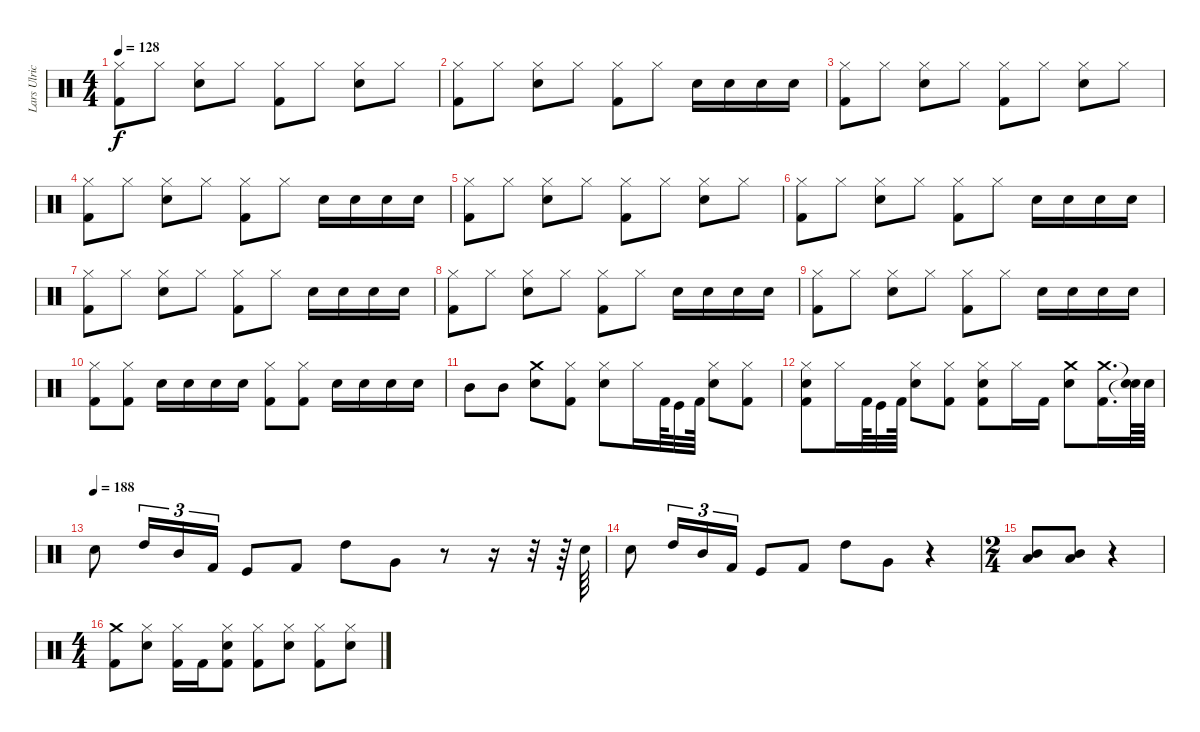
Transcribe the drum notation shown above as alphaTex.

\track ("Lars Ulrich (Drums)" "Lars Ulric") {instrument percussion}
\staff {score}
\articulation defaults
\ts (4 4)
\tempo 128
\clef neutral
\ks c
("Hi-Hat (closed)" "Kick (hit) 2").8{dy f} "Hi-Hat (closed)".8 ("Snare (hit) 2" "Hi-Hat (closed)").8 "Hi-Hat (closed)".8 ("Hi-Hat (closed)" "Kick (hit) 2").8 "Hi-Hat (closed)".8 ("Snare (hit) 2" "Hi-Hat (closed)").8 "Hi-Hat (closed)".8 |
("Hi-Hat (closed)" "Kick (hit) 2").8 "Hi-Hat (closed)".8 ("Snare (hit) 2" "Hi-Hat (closed)").8 "Hi-Hat (closed)".8 ("Hi-Hat (closed)" "Kick (hit) 2").8 "Hi-Hat (closed)".8 "Snare (hit) 2".16 "Snare (hit) 2".16 "Snare (hit) 2".16 "Snare (hit) 2".16 |
("Hi-Hat (closed)" "Kick (hit) 2").8 "Hi-Hat (closed)".8 ("Snare (hit) 2" "Hi-Hat (closed)").8 "Hi-Hat (closed)".8 ("Hi-Hat (closed)" "Kick (hit) 2").8 "Hi-Hat (closed)".8 ("Snare (hit) 2" "Hi-Hat (closed)").8 "Hi-Hat (closed)".8 |
("Hi-Hat (closed)" "Kick (hit) 2").8 "Hi-Hat (closed)".8 ("Snare (hit) 2" "Hi-Hat (closed)").8 "Hi-Hat (closed)".8 ("Hi-Hat (closed)" "Kick (hit) 2").8 "Hi-Hat (closed)".8 "Snare (hit) 2".16 "Snare (hit) 2".16 "Snare (hit) 2".16 "Snare (hit) 2".16 |
("Hi-Hat (closed)" "Kick (hit) 2").8 "Hi-Hat (closed)".8 ("Snare (hit) 2" "Hi-Hat (closed)").8 "Hi-Hat (closed)".8 ("Hi-Hat (closed)" "Kick (hit) 2").8 "Hi-Hat (closed)".8 ("Snare (hit) 2" "Hi-Hat (closed)").8 "Hi-Hat (closed)".8 |
("Hi-Hat (closed)" "Kick (hit) 2").8 "Hi-Hat (closed)".8 ("Snare (hit) 2" "Hi-Hat (closed)").8 "Hi-Hat (closed)".8 ("Hi-Hat (closed)" "Kick (hit) 2").8 "Hi-Hat (closed)".8 "Snare (hit) 2".16 "Snare (hit) 2".16 "Snare (hit) 2".16 "Snare (hit) 2".16 |
("Hi-Hat (closed)" "Kick (hit) 2").8 "Hi-Hat (closed)".8 ("Snare (hit) 2" "Hi-Hat (closed)").8 "Hi-Hat (closed)".8 ("Hi-Hat (closed)" "Kick (hit) 2").8 "Hi-Hat (closed)".8 "Snare (hit) 2".16 "Snare (hit) 2".16 "Snare (hit) 2".16 "Snare (hit) 2".16 |
("Hi-Hat (closed)" "Kick (hit) 2").8 "Hi-Hat (closed)".8 ("Snare (hit) 2" "Hi-Hat (closed)").8 "Hi-Hat (closed)".8 ("Hi-Hat (closed)" "Kick (hit) 2").8 "Hi-Hat (closed)".8 "Snare (hit) 2".16 "Snare (hit) 2".16 "Snare (hit) 2".16 "Snare (hit) 2".16 |
("Hi-Hat (closed)" "Kick (hit) 2").8 "Hi-Hat (closed)".8 ("Snare (hit) 2" "Hi-Hat (closed)").8 "Hi-Hat (closed)".8 ("Hi-Hat (closed)" "Kick (hit) 2").8 "Hi-Hat (closed)".8 "Snare (hit) 2".16 "Snare (hit) 2".16 "Snare (hit) 2".16 "Snare (hit) 2".16 |
("Kick (hit) 2" "Hi-Hat (closed)").8 ("Kick (hit) 2" "Hi-Hat (closed)").8 "Snare (hit) 2".16 "Snare (hit) 2".16 "Snare (hit) 2".16 "Snare (hit) 2".16 ("Kick (hit) 2" "Hi-Hat (closed)").8 ("Kick (hit) 2" "Hi-Hat (closed)").8 "Snare (hit) 2".16 "Snare (hit) 2".16 "Snare (hit) 2".16 "Snare (hit) 2".16 |
"Mid Tom (hit)".8 "Mid Tom (hit)".8 ("Crash medium (hit)" "Snare (hit) 2").8 ("Kick (hit) 2" "Hi-Hat (closed)").8 ("Snare (hit) 2" "Hi-Hat (closed)").8 "Hi-Hat (closed)".16 "Kick (hit) 2".64 "Kick (hit)".32 "Kick (hit) 2".64 ("Snare (hit) 2" "Hi-Hat (closed)").8 ("Kick (hit) 2" "Hi-Hat (closed)").8 |
("Hi-Hat (closed)" "Snare (hit) 2" "Kick (hit) 2").8 "Hi-Hat (closed)".16 "Kick (hit) 2".64 "Kick (hit)".32 "Kick (hit) 2".64 ("Snare (hit) 2" "Hi-Hat (closed)").8 ("Hi-Hat (closed)" "Kick (hit) 2").8 ("Snare (hit) 2" "Hi-Hat (closed)" "Kick (hit) 2").8 "Hi-Hat (closed)".16 "Kick (hit) 2".16 ("Crash medium (hit)" "Snare (hit) 2").8 ("Crash medium (hit)" "Kick (hit) 2").16{d} ("Snare (hit)"{t} "Snare (hit)"{t}).64 "Snare (hit) 2".64 |
\tempo (188)
"Snare (hit) 2".8 "High Tom (hit)".16{tu (3 2)} "Mid Tom (hit)".16{tu (3 2)} "Kick (hit) 2".16{tu (3 2)} "Kick (hit)".8 "Kick (hit) 2".8 "High Tom (hit)".8 "Very Low Tom (hit)".8 r.8 r.16 r.32 r.64 "Snare (hit) 2".64 |
"Snare (hit) 2".8 "High Tom (hit)".16{tu (3 2)} "Mid Tom (hit)".16{tu (3 2)} "Kick (hit) 2".16{tu (3 2)} "Kick (hit)".8 "Kick (hit) 2".8 "High Tom (hit)".8 "Very Low Tom (hit)".8 r.4 |
\ts (2 4)
("Mid Tom (hit)" "Low Tom (hit)").8 ("Mid Tom (hit)" "Low Tom (hit)").8 r.4 |
\ts (4 4)
("Kick (hit) 2" "Crash medium (hit)").8 ("Hi-Hat (closed)" "Snare (hit) 2").8 ("Kick (hit) 2" "Hi-Hat (closed)").16 "Kick (hit) 2".16 ("Kick (hit) 2" "Snare (hit) 2" "Hi-Hat (closed)").8 ("Kick (hit) 2" "Hi-Hat (closed)").8 ("Snare (hit) 2" "Hi-Hat (closed)").8 ("Kick (hit) 2" "Hi-Hat (closed)").8 ("Snare (hit) 2" "Hi-Hat (closed)").8
